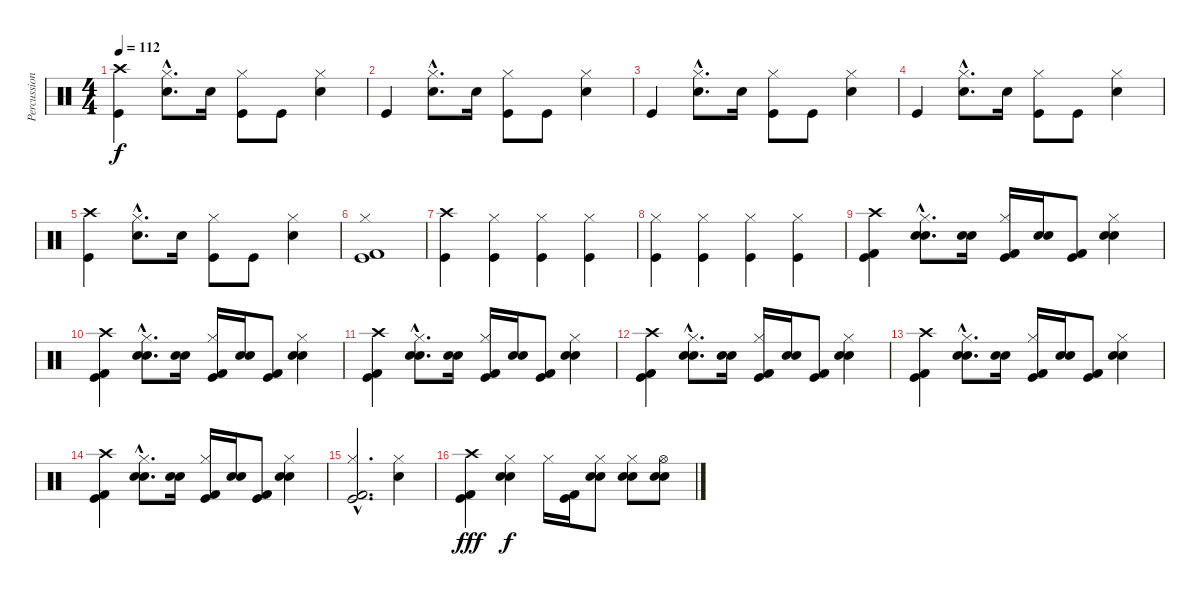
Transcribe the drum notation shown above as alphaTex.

\track ("Percussions" "Percussion") {instrument percussion}
\staff {score}
\articulation defaults
\ts (4 4)
\tempo 112
\clef neutral
\ks c
("Crash high (hit)" "Kick (hit)").4{dy f} ("Hi-Hat (closed)"{hac} "Snare (hit) 2"{hac}).8{d} "Snare (hit) 2".16 ("Hi-Hat (closed)" "Kick (hit)").8 "Kick (hit)".8 ("Hi-Hat (closed)" "Snare (hit) 2").4 |
"Kick (hit)".4 ("Hi-Hat (closed)"{hac} "Snare (hit) 2"{hac}).8{d} "Snare (hit) 2".16 ("Hi-Hat (closed)" "Kick (hit)").8 "Kick (hit)".8 ("Hi-Hat (closed)" "Snare (hit) 2").4 |
"Kick (hit)".4 ("Hi-Hat (closed)"{hac} "Snare (hit) 2"{hac}).8{d} "Snare (hit) 2".16 ("Hi-Hat (closed)" "Kick (hit)").8 "Kick (hit)".8 ("Hi-Hat (closed)" "Snare (hit) 2").4 |
"Kick (hit)".4 ("Hi-Hat (closed)"{hac} "Snare (hit) 2"{hac}).8{d} "Snare (hit) 2".16 ("Hi-Hat (closed)" "Kick (hit)").8 "Kick (hit)".8 ("Hi-Hat (closed)" "Snare (hit) 2").4 |
("Crash high (hit)" "Kick (hit)").4 ("Hi-Hat (closed)"{hac} "Snare (hit) 2"{hac}).8{d} "Snare (hit) 2".16 ("Hi-Hat (closed)" "Kick (hit)").8 "Kick (hit)".8 ("Hi-Hat (closed)" "Snare (hit) 2").4 |
("Hi-Hat (closed)" "Kick (hit)" "Kick (hit) 2").1 |
("Crash high (hit)" "Kick (hit)").4 ("Hi-Hat (closed)" "Kick (hit)").4 ("Hi-Hat (closed)" "Kick (hit)").4 ("Hi-Hat (closed)" "Kick (hit)").4 |
("Hi-Hat (closed)" "Kick (hit)").4 ("Hi-Hat (closed)" "Kick (hit)").4 ("Hi-Hat (closed)" "Kick (hit)").4 ("Hi-Hat (closed)" "Kick (hit)").4 |
("Crash high (hit)" "Kick (hit)" "Kick (hit) 2").4 ("Hi-Hat (closed)"{hac} "Snare (hit) 2"{hac} "Electric Snare (hit)"{hac}).8{d} ("Snare (hit) 2" "Electric Snare (hit)").16 ("Hi-Hat (closed)" "Kick (hit)" "Kick (hit) 2").16 ("Snare (hit) 2" "Electric Snare (hit)").16 ("Kick (hit)" "Kick (hit) 2").8 ("Hi-Hat (closed)" "Snare (hit) 2" "Electric Snare (hit)").4 |
("Crash high (hit)" "Kick (hit)" "Kick (hit) 2").4 ("Hi-Hat (closed)"{hac} "Snare (hit) 2"{hac} "Electric Snare (hit)"{hac}).8{d} ("Snare (hit) 2" "Electric Snare (hit)").16 ("Hi-Hat (closed)" "Kick (hit)" "Kick (hit) 2").16 ("Snare (hit) 2" "Electric Snare (hit)").16 ("Kick (hit)" "Kick (hit) 2").8 ("Hi-Hat (closed)" "Snare (hit) 2" "Electric Snare (hit)").4 |
("Crash high (hit)" "Kick (hit)" "Kick (hit) 2").4 ("Hi-Hat (closed)"{hac} "Snare (hit) 2"{hac} "Electric Snare (hit)"{hac}).8{d} ("Snare (hit) 2" "Electric Snare (hit)").16 ("Hi-Hat (closed)" "Kick (hit)" "Kick (hit) 2").16 ("Snare (hit) 2" "Electric Snare (hit)").16 ("Kick (hit)" "Kick (hit) 2").8 ("Hi-Hat (closed)" "Snare (hit) 2" "Electric Snare (hit)").4 |
("Crash high (hit)" "Kick (hit)" "Kick (hit) 2").4 ("Hi-Hat (closed)"{hac} "Snare (hit) 2"{hac} "Electric Snare (hit)"{hac}).8{d} ("Snare (hit) 2" "Electric Snare (hit)").16 ("Hi-Hat (closed)" "Kick (hit)" "Kick (hit) 2").16 ("Snare (hit) 2" "Electric Snare (hit)").16 ("Kick (hit)" "Kick (hit) 2").8 ("Hi-Hat (closed)" "Snare (hit) 2" "Electric Snare (hit)").4 |
("Crash high (hit)" "Kick (hit)" "Kick (hit) 2").4 ("Hi-Hat (closed)"{hac} "Snare (hit) 2"{hac} "Electric Snare (hit)"{hac}).8{d} ("Snare (hit) 2" "Electric Snare (hit)").16 ("Hi-Hat (closed)" "Kick (hit)" "Kick (hit) 2").16 ("Snare (hit) 2" "Electric Snare (hit)").16 ("Kick (hit)" "Kick (hit) 2").8 ("Hi-Hat (closed)" "Snare (hit) 2" "Electric Snare (hit)").4 |
("Crash high (hit)" "Kick (hit)" "Kick (hit) 2").4 ("Hi-Hat (closed)"{hac} "Snare (hit) 2"{hac} "Electric Snare (hit)"{hac}).8{d} ("Snare (hit) 2" "Electric Snare (hit)").16 ("Hi-Hat (closed)" "Kick (hit)" "Kick (hit) 2").16 ("Snare (hit) 2" "Electric Snare (hit)").16 ("Kick (hit)" "Kick (hit) 2").8 ("Hi-Hat (closed)" "Snare (hit) 2" "Electric Snare (hit)").4 |
("Hi-Hat (closed)"{hac} "Kick (hit)"{hac} "Kick (hit) 2"{hac}).2{d} ("Hi-Hat (closed)" "Electric Snare (hit)").4 |
("Crash high (hit)" "Kick (hit)" "Kick (hit) 2").4{dy fff} ("Hi-Hat (closed)" "Snare (hit) 2" "Electric Snare (hit)").4{dy f} "Hi-Hat (closed)".16 ("Kick (hit)" "Kick (hit) 2").16 ("Hi-Hat (closed)" "Snare (hit) 2" "Electric Snare (hit)").8 ("Hi-Hat (closed)" "Snare (hit) 2" "Electric Snare (hit)").8 ("Hi-Hat (open)" "Snare (hit) 2" "Electric Snare (hit)").8
